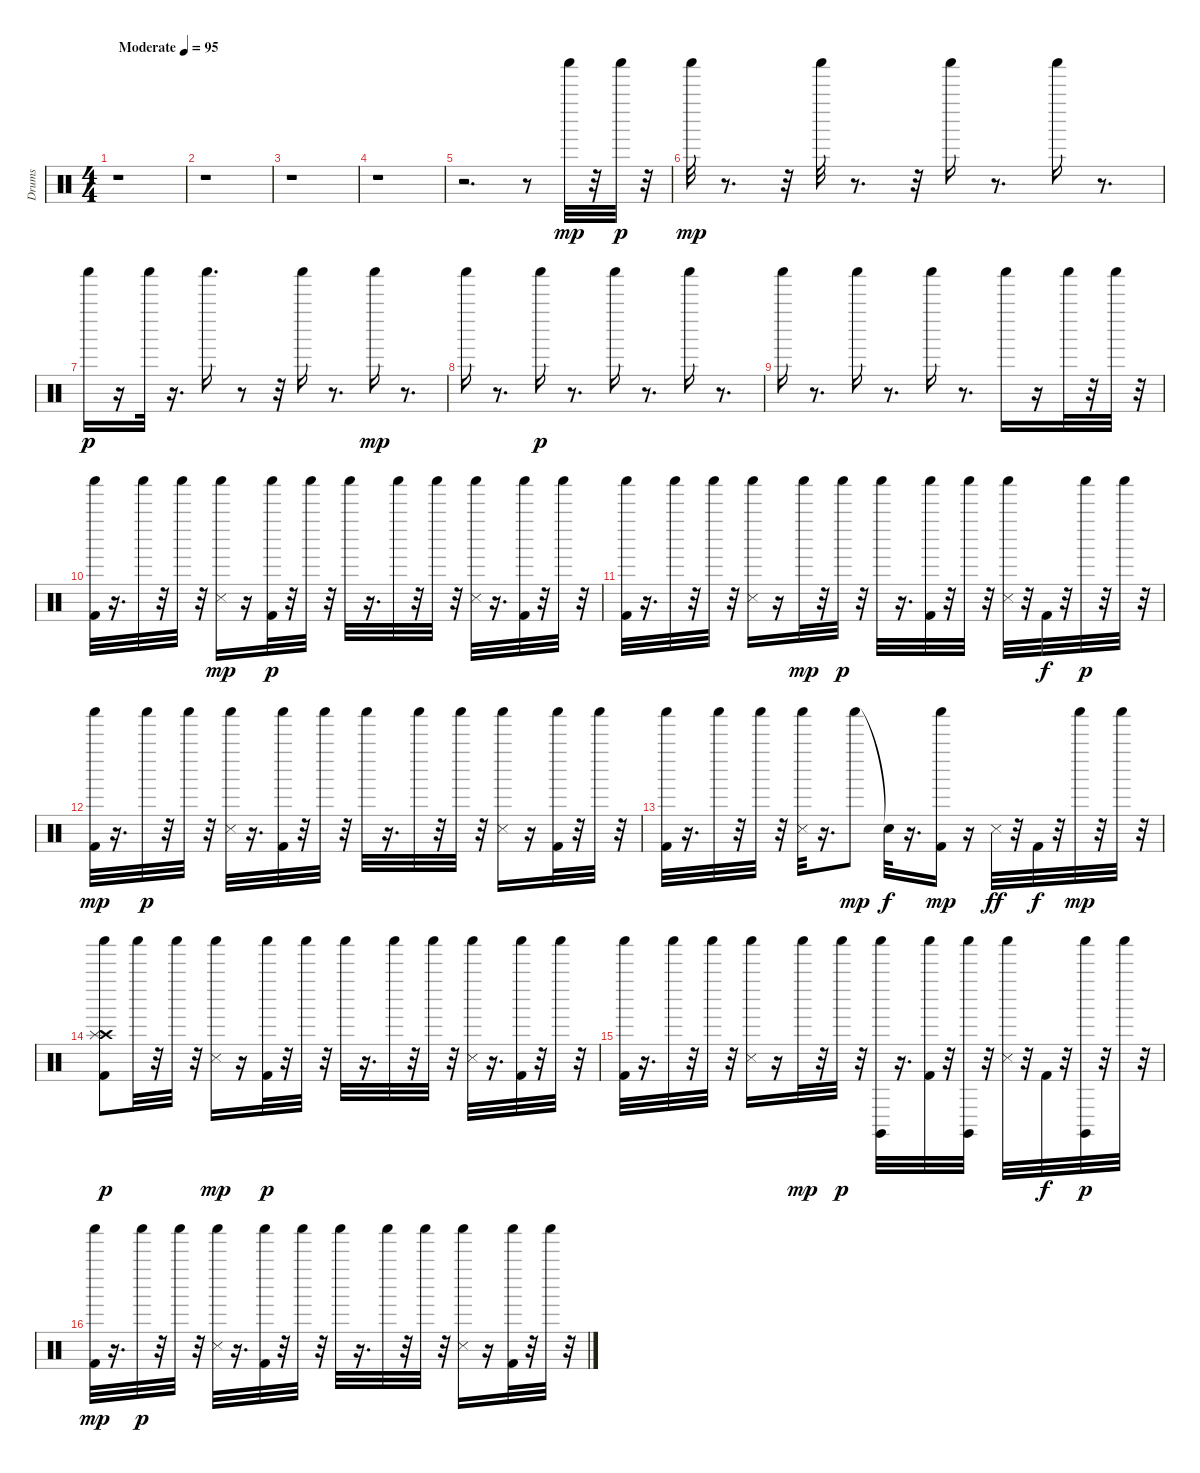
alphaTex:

\track ("Drums" "Drums") {instrument percussion}
\staff {score}
\articulation defaults
\ts (4 4)
\tempo (95 "Moderate")
\clef neutral
\ks c
r.1{dy mp} |
r.1 |
r.1 |
r.1 |
r.2{d} r.8 "Shaker (hit)".32 r.32 "Shaker (hit)".32{dy p} r.32 |
"Shaker (hit)".32{dy mp} r.8{d} r.32 "Shaker (hit)".32 r.8{d} r.32 "Shaker (hit)".16 r.8{d} "Shaker (hit)".16 r.8{d} |
"Shaker (hit)".16{dy p} r.16 "Shaker (hit)".32 r.16{d} "Shaker (hit)".16{d} r.8 r.32 "Shaker (hit)".16 r.8{d} "Shaker (hit)".16{dy mp} r.8{d} |
"Shaker (hit)".16 r.8{d} "Shaker (hit)".16{dy p} r.8{d} "Shaker (hit)".16 r.8{d} "Shaker (hit)".16 r.8{d} |
"Shaker (hit)".16 r.8{d} "Shaker (hit)".16 r.8{d} "Shaker (hit)".16 r.8{d} "Shaker (hit)".16 r.16 "Shaker (hit)".32 r.32 "Shaker (hit)".32 r.32 |
("Kick (hit) 2" "Shaker (hit)").32 r.16{d} "Shaker (hit)".32 r.32 "Shaker (hit)".32 r.32 ("Snare (side stick) 3" "Shaker (hit)").16{dy mp} r.16 ("Kick (hit) 2" "Shaker (hit)").32{dy p} r.32 "Shaker (hit)".32 r.32 "Shaker (hit)".32 r.16{d} "Shaker (hit)".32 r.32 "Shaker (hit)".32 r.32 ("Snare (side stick) 3" "Shaker (hit)").32 r.16{d} ("Kick (hit) 2" "Shaker (hit)").32 r.32 "Shaker (hit)".32 r.32 |
("Kick (hit) 2" "Shaker (hit)").32 r.16{d} "Shaker (hit)".32 r.32 "Shaker (hit)".32 r.32 ("Snare (side stick) 3" "Shaker (hit)").16 r.16 "Shaker (hit)".32{dy mp} r.32 "Shaker (hit)".32{dy p} r.32 "Shaker (hit)".32 r.16{d} ("Kick (hit) 2" "Shaker (hit)").32 r.32 "Shaker (hit)".32 r.32 ("Snare (side stick) 3" "Shaker (hit)").32 r.32 "Kick (hit) 2".32{dy f} r.32 "Shaker (hit)".32{dy p} r.32 "Shaker (hit)".32 r.32 |
("Kick (hit) 2" "Shaker (hit)").32{dy mp} r.16{d} "Shaker (hit)".32{dy p} r.32 "Shaker (hit)".32 r.32 ("Snare (side stick) 3" "Shaker (hit)").32 r.16{d} ("Kick (hit) 2" "Shaker (hit)").32 r.32 "Shaker (hit)".32 r.32 "Shaker (hit)".32 r.16{d} "Shaker (hit)".32 r.32 "Shaker (hit)".32 r.32 ("Snare (side stick) 3" "Shaker (hit)").16 r.16 ("Kick (hit) 2" "Shaker (hit)").32 r.32 "Shaker (hit)".32 r.32 |
("Kick (hit) 2" "Shaker (hit)").32 r.16{d} "Shaker (hit)".32 r.32 "Shaker (hit)".32 r.32 ("Snare (side stick) 3" "Shaker (hit)").32 r.16{d} "Shaker (hit)".8{dy mp} "Snare (hit)"{t}.32{dy f} r.16{d} ("Kick (hit) 2" "Shaker (hit)").16{dy mp} r.16 "Snare (side stick) 3".32{dy ff} r.32 "Kick (hit) 2".32{dy f} r.32 "Shaker (hit)".32{dy mp} r.32 "Shaker (hit)".32 r.32 |
("Kick (hit) 2" "Crash high (hit)" "Splash (hit)" "Shaker (hit)").8{dy p} "Shaker (hit)".32 r.32 "Shaker (hit)".32 r.32 ("Snare (side stick) 3" "Shaker (hit)").16{dy mp} r.16 ("Kick (hit) 2" "Shaker (hit)").32{dy p} r.32 "Shaker (hit)".32 r.32 "Shaker (hit)".32 r.16{d} "Shaker (hit)".32 r.32 "Shaker (hit)".32 r.32 ("Snare (side stick) 3" "Shaker (hit)").32 r.16{d} ("Kick (hit) 2" "Shaker (hit)").32 r.32 "Shaker (hit)".32 r.32 |
("Kick (hit) 2" "Shaker (hit)").32 r.16{d} "Shaker (hit)".32 r.32 "Shaker (hit)".32 r.32 ("Snare (side stick) 3" "Shaker (hit)").16 r.16 "Shaker (hit)".32{dy mp} r.32 "Shaker (hit)".32{dy p} r.32 ("Claves (hit)" "Shaker (hit)").32 r.16{d} ("Kick (hit) 2" "Shaker (hit)").32 r.32 ("Claves (hit)" "Shaker (hit)").32 r.32 ("Snare (side stick) 3" "Shaker (hit)").32 r.32 "Kick (hit) 2".32{dy f} r.32 ("Claves (hit)" "Shaker (hit)").32{dy p} r.32 "Shaker (hit)".32 r.32 |
("Kick (hit) 2" "Shaker (hit)").32{dy mp} r.16{d} "Shaker (hit)".32{dy p} r.32 "Shaker (hit)".32 r.32 ("Snare (side stick) 3" "Shaker (hit)").32 r.16{d} ("Kick (hit) 2" "Shaker (hit)").32 r.32 "Shaker (hit)".32 r.32 "Shaker (hit)".32 r.16{d} "Shaker (hit)".32 r.32 "Shaker (hit)".32 r.32 ("Snare (side stick) 3" "Shaker (hit)").16 r.16 ("Kick (hit) 2" "Shaker (hit)").32 r.32 "Shaker (hit)".32 r.32
